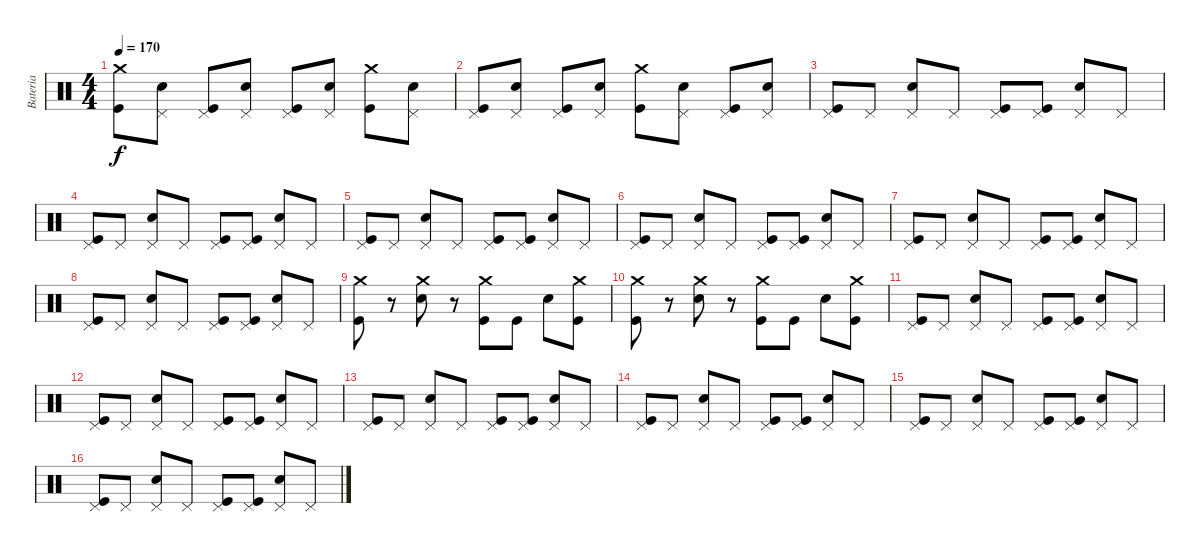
\track ("Bateria" "Bateria") {instrument percussion}
\staff {score}
\articulation defaults
\ts (4 4)
\tempo 170
\clef neutral
\ks c
("Crash medium (hit)" "Kick (hit)").8{dy f} ("Pedal Hi-Hat (hit)" "Electric Snare (hit)").8 ("Pedal Hi-Hat (hit)" "Kick (hit)").8 ("Pedal Hi-Hat (hit)" "Electric Snare (hit)").8 ("Pedal Hi-Hat (hit)" "Kick (hit)").8 ("Pedal Hi-Hat (hit)" "Electric Snare (hit)").8 ("Crash medium (hit)" "Kick (hit)").8 ("Pedal Hi-Hat (hit)" "Electric Snare (hit)").8 |
("Pedal Hi-Hat (hit)" "Kick (hit)").8 ("Pedal Hi-Hat (hit)" "Electric Snare (hit)").8 ("Pedal Hi-Hat (hit)" "Kick (hit)").8 ("Pedal Hi-Hat (hit)" "Electric Snare (hit)").8 ("Crash medium (hit)" "Kick (hit)").8 ("Pedal Hi-Hat (hit)" "Electric Snare (hit)").8 ("Pedal Hi-Hat (hit)" "Kick (hit)").8 ("Pedal Hi-Hat (hit)" "Electric Snare (hit)").8 |
("Pedal Hi-Hat (hit)" "Kick (hit)").8 "Pedal Hi-Hat (hit)".8 ("Pedal Hi-Hat (hit)" "Electric Snare (hit)").8 "Pedal Hi-Hat (hit)".8 ("Pedal Hi-Hat (hit)" "Kick (hit)").8 ("Pedal Hi-Hat (hit)" "Kick (hit)").8 ("Pedal Hi-Hat (hit)" "Electric Snare (hit)").8 "Pedal Hi-Hat (hit)".8 |
("Pedal Hi-Hat (hit)" "Kick (hit)").8 "Pedal Hi-Hat (hit)".8 ("Pedal Hi-Hat (hit)" "Electric Snare (hit)").8 "Pedal Hi-Hat (hit)".8 ("Pedal Hi-Hat (hit)" "Kick (hit)").8 ("Pedal Hi-Hat (hit)" "Kick (hit)").8 ("Pedal Hi-Hat (hit)" "Electric Snare (hit)").8 "Pedal Hi-Hat (hit)".8 |
("Pedal Hi-Hat (hit)" "Kick (hit)").8 "Pedal Hi-Hat (hit)".8 ("Pedal Hi-Hat (hit)" "Electric Snare (hit)").8 "Pedal Hi-Hat (hit)".8 ("Pedal Hi-Hat (hit)" "Kick (hit)").8 ("Pedal Hi-Hat (hit)" "Kick (hit)").8 ("Pedal Hi-Hat (hit)" "Electric Snare (hit)").8 "Pedal Hi-Hat (hit)".8 |
("Pedal Hi-Hat (hit)" "Kick (hit)").8 "Pedal Hi-Hat (hit)".8 ("Pedal Hi-Hat (hit)" "Electric Snare (hit)").8 "Pedal Hi-Hat (hit)".8 ("Pedal Hi-Hat (hit)" "Kick (hit)").8 ("Pedal Hi-Hat (hit)" "Kick (hit)").8 ("Pedal Hi-Hat (hit)" "Electric Snare (hit)").8 "Pedal Hi-Hat (hit)".8 |
("Pedal Hi-Hat (hit)" "Kick (hit)").8 "Pedal Hi-Hat (hit)".8 ("Pedal Hi-Hat (hit)" "Electric Snare (hit)").8 "Pedal Hi-Hat (hit)".8 ("Pedal Hi-Hat (hit)" "Kick (hit)").8 ("Pedal Hi-Hat (hit)" "Kick (hit)").8 ("Pedal Hi-Hat (hit)" "Electric Snare (hit)").8 "Pedal Hi-Hat (hit)".8 |
("Pedal Hi-Hat (hit)" "Kick (hit)").8 "Pedal Hi-Hat (hit)".8 ("Pedal Hi-Hat (hit)" "Electric Snare (hit)").8 "Pedal Hi-Hat (hit)".8 ("Pedal Hi-Hat (hit)" "Kick (hit)").8 ("Pedal Hi-Hat (hit)" "Kick (hit)").8 ("Pedal Hi-Hat (hit)" "Electric Snare (hit)").8 "Pedal Hi-Hat (hit)".8 |
("Crash medium (hit)" "Kick (hit)").8 r.8 ("Crash medium (hit)" "Electric Snare (hit)").8 r.8 ("Crash medium (hit)" "Kick (hit)").8 "Kick (hit)".8 "Electric Snare (hit)".8 ("Crash medium (hit)" "Kick (hit)").8 |
("Crash medium (hit)" "Kick (hit)").8 r.8 ("Crash medium (hit)" "Electric Snare (hit)").8 r.8 ("Crash medium (hit)" "Kick (hit)").8 "Kick (hit)".8 "Electric Snare (hit)".8 ("Crash medium (hit)" "Kick (hit)").8 |
("Pedal Hi-Hat (hit)" "Kick (hit)").8 "Pedal Hi-Hat (hit)".8 ("Pedal Hi-Hat (hit)" "Electric Snare (hit)").8 "Pedal Hi-Hat (hit)".8 ("Pedal Hi-Hat (hit)" "Kick (hit)").8 ("Pedal Hi-Hat (hit)" "Kick (hit)").8 ("Pedal Hi-Hat (hit)" "Electric Snare (hit)").8 "Pedal Hi-Hat (hit)".8 |
("Pedal Hi-Hat (hit)" "Kick (hit)").8 "Pedal Hi-Hat (hit)".8 ("Pedal Hi-Hat (hit)" "Electric Snare (hit)").8 "Pedal Hi-Hat (hit)".8 ("Pedal Hi-Hat (hit)" "Kick (hit)").8 ("Pedal Hi-Hat (hit)" "Kick (hit)").8 ("Pedal Hi-Hat (hit)" "Electric Snare (hit)").8 "Pedal Hi-Hat (hit)".8 |
("Pedal Hi-Hat (hit)" "Kick (hit)").8 "Pedal Hi-Hat (hit)".8 ("Pedal Hi-Hat (hit)" "Electric Snare (hit)").8 "Pedal Hi-Hat (hit)".8 ("Pedal Hi-Hat (hit)" "Kick (hit)").8 ("Pedal Hi-Hat (hit)" "Kick (hit)").8 ("Pedal Hi-Hat (hit)" "Electric Snare (hit)").8 "Pedal Hi-Hat (hit)".8 |
("Pedal Hi-Hat (hit)" "Kick (hit)").8 "Pedal Hi-Hat (hit)".8 ("Pedal Hi-Hat (hit)" "Electric Snare (hit)").8 "Pedal Hi-Hat (hit)".8 ("Pedal Hi-Hat (hit)" "Kick (hit)").8 ("Pedal Hi-Hat (hit)" "Kick (hit)").8 ("Pedal Hi-Hat (hit)" "Electric Snare (hit)").8 "Pedal Hi-Hat (hit)".8 |
("Pedal Hi-Hat (hit)" "Kick (hit)").8 "Pedal Hi-Hat (hit)".8 ("Pedal Hi-Hat (hit)" "Electric Snare (hit)").8 "Pedal Hi-Hat (hit)".8 ("Pedal Hi-Hat (hit)" "Kick (hit)").8 ("Pedal Hi-Hat (hit)" "Kick (hit)").8 ("Pedal Hi-Hat (hit)" "Electric Snare (hit)").8 "Pedal Hi-Hat (hit)".8 |
("Pedal Hi-Hat (hit)" "Kick (hit)").8 "Pedal Hi-Hat (hit)".8 ("Pedal Hi-Hat (hit)" "Electric Snare (hit)").8 "Pedal Hi-Hat (hit)".8 ("Pedal Hi-Hat (hit)" "Kick (hit)").8 ("Pedal Hi-Hat (hit)" "Kick (hit)").8 ("Pedal Hi-Hat (hit)" "Electric Snare (hit)").8 "Pedal Hi-Hat (hit)".8
